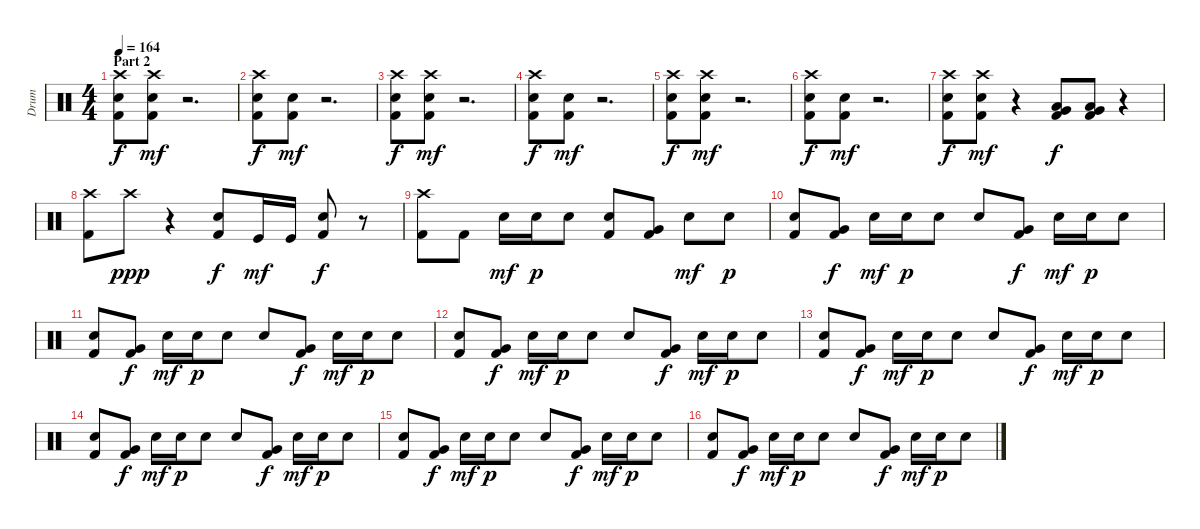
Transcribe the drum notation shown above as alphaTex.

\track ("Drum" "Drum") {instrument percussion}
\staff {score}
\articulation defaults
\ts (4 4)
\section ("" "Part 2")
\tempo 164
\clef neutral
\ks c
("Crash high (hit)" "Electric Snare (hit)" "Kick (hit) 2").8{dy f} ("Crash high (hit)" "Electric Snare (hit)" "Kick (hit) 2").8{dy mf} r.2{d} |
("Crash high (hit)" "Electric Snare (hit)" "Kick (hit) 2").8{dy f} ("Electric Snare (hit)" "Kick (hit) 2").8{dy mf} r.2{d} |
("Crash high (hit)" "Electric Snare (hit)" "Kick (hit) 2").8{dy f} ("Crash high (hit)" "Electric Snare (hit)" "Kick (hit) 2").8{dy mf} r.2{d} |
("Crash high (hit)" "Electric Snare (hit)" "Kick (hit) 2").8{dy f} ("Electric Snare (hit)" "Kick (hit) 2").8{dy mf} r.2{d} |
("Crash high (hit)" "Electric Snare (hit)" "Kick (hit) 2").8{dy f} ("Crash high (hit)" "Electric Snare (hit)" "Kick (hit) 2").8{dy mf} r.2{d} |
("Crash high (hit)" "Electric Snare (hit)" "Kick (hit) 2").8{dy f} ("Electric Snare (hit)" "Kick (hit) 2").8{dy mf} r.2{d} |
("Crash high (hit)" "Electric Snare (hit)" "Kick (hit) 2").8{dy f} ("Crash high (hit)" "Electric Snare (hit)" "Kick (hit) 2").8{dy mf} r.4 ("Very Low Tom (hit)" "Low Tom (hit)" "Kick (hit) 2").8{dy f} ("Very Low Tom (hit)" "Low Tom (hit)" "Kick (hit) 2").8 r.4 |
("Crash high (hit)" "Kick (hit) 2").8 "Crash high (hit)".8{dy ppp} r.4 ("Electric Snare (hit)" "Kick (hit) 2").8{dy f} "Kick (hit)".16{dy mf} "Kick (hit)".16 ("Electric Snare (hit)" "Kick (hit) 2").8{dy f} r.8 |
("Crash high (hit)" "Kick (hit) 2").8 "Kick (hit) 2".8 "Electric Snare (hit)".16{dy mf} "Electric Snare (hit)".16{dy p} "Electric Snare (hit)".8 ("Electric Snare (hit)" "Kick (hit) 2").8 ("Very Low Tom (hit)" "Kick (hit) 2").8 "Electric Snare (hit)".8{dy mf} "Electric Snare (hit)".8{dy p} |
("Electric Snare (hit)" "Kick (hit) 2").8 ("Very Low Tom (hit)" "Kick (hit) 2").8{dy f} "Electric Snare (hit)".16{dy mf} "Electric Snare (hit)".16{dy p} "Electric Snare (hit)".8 "Electric Snare (hit)".8 ("Very Low Tom (hit)" "Kick (hit) 2").8{dy f} "Electric Snare (hit)".16{dy mf} "Electric Snare (hit)".16{dy p} "Electric Snare (hit)".8 |
("Electric Snare (hit)" "Kick (hit) 2").8 ("Very Low Tom (hit)" "Kick (hit) 2").8{dy f} "Electric Snare (hit)".16{dy mf} "Electric Snare (hit)".16{dy p} "Electric Snare (hit)".8 "Electric Snare (hit)".8 ("Very Low Tom (hit)" "Kick (hit) 2").8{dy f} "Electric Snare (hit)".16{dy mf} "Electric Snare (hit)".16{dy p} "Electric Snare (hit)".8 |
("Electric Snare (hit)" "Kick (hit) 2").8 ("Very Low Tom (hit)" "Kick (hit) 2").8{dy f} "Electric Snare (hit)".16{dy mf} "Electric Snare (hit)".16{dy p} "Electric Snare (hit)".8 "Electric Snare (hit)".8 ("Very Low Tom (hit)" "Kick (hit) 2").8{dy f} "Electric Snare (hit)".16{dy mf} "Electric Snare (hit)".16{dy p} "Electric Snare (hit)".8 |
("Electric Snare (hit)" "Kick (hit) 2").8 ("Very Low Tom (hit)" "Kick (hit) 2").8{dy f} "Electric Snare (hit)".16{dy mf} "Electric Snare (hit)".16{dy p} "Electric Snare (hit)".8 "Electric Snare (hit)".8 ("Very Low Tom (hit)" "Kick (hit) 2").8{dy f} "Electric Snare (hit)".16{dy mf} "Electric Snare (hit)".16{dy p} "Electric Snare (hit)".8 |
("Electric Snare (hit)" "Kick (hit) 2").8 ("Very Low Tom (hit)" "Kick (hit) 2").8{dy f} "Electric Snare (hit)".16{dy mf} "Electric Snare (hit)".16{dy p} "Electric Snare (hit)".8 "Electric Snare (hit)".8 ("Very Low Tom (hit)" "Kick (hit) 2").8{dy f} "Electric Snare (hit)".16{dy mf} "Electric Snare (hit)".16{dy p} "Electric Snare (hit)".8 |
("Electric Snare (hit)" "Kick (hit) 2").8 ("Very Low Tom (hit)" "Kick (hit) 2").8{dy f} "Electric Snare (hit)".16{dy mf} "Electric Snare (hit)".16{dy p} "Electric Snare (hit)".8 "Electric Snare (hit)".8 ("Very Low Tom (hit)" "Kick (hit) 2").8{dy f} "Electric Snare (hit)".16{dy mf} "Electric Snare (hit)".16{dy p} "Electric Snare (hit)".8 |
("Electric Snare (hit)" "Kick (hit) 2").8 ("Very Low Tom (hit)" "Kick (hit) 2").8{dy f} "Electric Snare (hit)".16{dy mf} "Electric Snare (hit)".16{dy p} "Electric Snare (hit)".8 "Electric Snare (hit)".8 ("Very Low Tom (hit)" "Kick (hit) 2").8{dy f} "Electric Snare (hit)".16{dy mf} "Electric Snare (hit)".16{dy p} "Electric Snare (hit)".8
